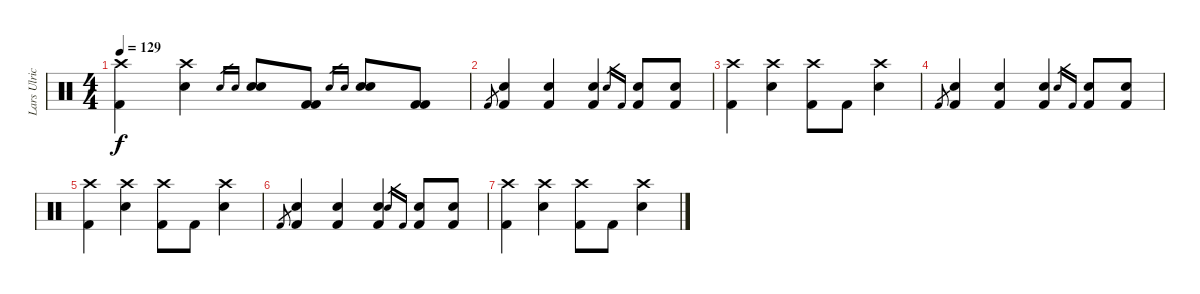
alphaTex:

\track ("Lars Ulrich [drums]" "Lars Ulric") {instrument percussion}
\staff {score}
\articulation defaults
\ts (4 4)
\tempo 129
\clef neutral
\ks c
("Kick (hit) 2" "Crash high (hit)").4{dy f} ("Snare (hit) 2" "Crash high (hit)").4 "Electric Snare (hit)".16{gr} "Snare (hit) 2".16{gr} ("Electric Snare (hit)" "Snare (hit) 2").8 ("Kick (hit) 2" "Kick (hit) 2").8 "Electric Snare (hit)".16{gr} "Snare (hit) 2".16{gr} ("Electric Snare (hit)" "Snare (hit) 2").8 ("Kick (hit) 2" "Kick (hit) 2").8 |
"Kick (hit) 2".8{gr} ("Electric Snare (hit)" "Kick (hit) 2").4 ("Electric Snare (hit)" "Kick (hit) 2").4 ("Electric Snare (hit)" "Kick (hit) 2").4 "Electric Snare (hit)".16{gr} "Kick (hit) 2".16{gr} ("Electric Snare (hit)" "Kick (hit) 2").8 ("Electric Snare (hit)" "Kick (hit) 2").8 |
("Kick (hit) 2" "Crash high (hit)").4 ("Snare (hit) 2" "Crash high (hit)").4 ("Kick (hit) 2" "Crash high (hit)").8 "Kick (hit) 2".8 ("Snare (hit) 2" "Crash high (hit)").4 |
"Kick (hit) 2".8{gr} ("Electric Snare (hit)" "Kick (hit) 2").4 ("Electric Snare (hit)" "Kick (hit) 2").4 ("Electric Snare (hit)" "Kick (hit) 2").4 "Electric Snare (hit)".16{gr} "Kick (hit) 2".16{gr} ("Electric Snare (hit)" "Kick (hit) 2").8 ("Electric Snare (hit)" "Kick (hit) 2").8 |
("Kick (hit) 2" "Crash high (hit)").4 ("Snare (hit) 2" "Crash high (hit)").4 ("Kick (hit) 2" "Crash high (hit)").8 "Kick (hit) 2".8 ("Snare (hit) 2" "Crash high (hit)").4 |
"Kick (hit) 2".8{gr} ("Electric Snare (hit)" "Kick (hit) 2").4 ("Electric Snare (hit)" "Kick (hit) 2").4 ("Electric Snare (hit)" "Kick (hit) 2").4 "Electric Snare (hit)".16{gr} "Kick (hit) 2".16{gr} ("Electric Snare (hit)" "Kick (hit) 2").8 ("Electric Snare (hit)" "Kick (hit) 2").8 |
("Kick (hit) 2" "Crash high (hit)").4 ("Snare (hit) 2" "Crash high (hit)").4 ("Kick (hit) 2" "Crash high (hit)").8 "Kick (hit) 2".8 ("Snare (hit) 2" "Crash high (hit)").4
